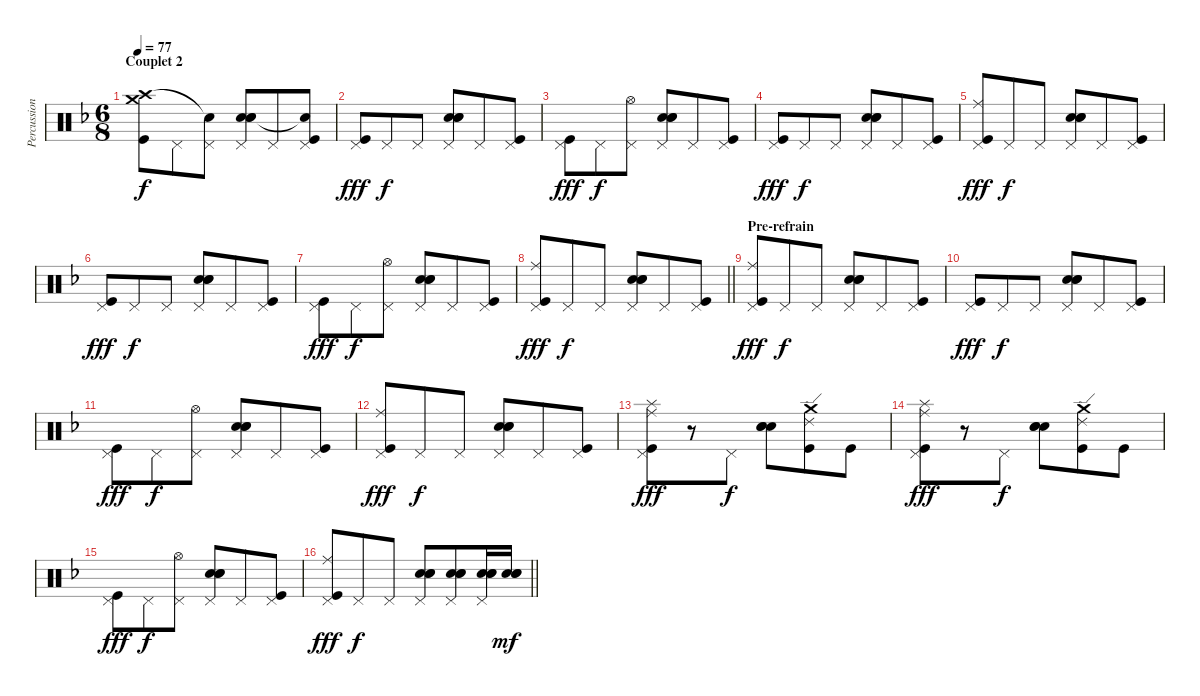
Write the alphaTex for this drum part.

\track ("Percussions" "Percussion") {instrument percussion}
\staff {score}
\articulation defaults
\ts (6 8)
\section ("" "Couplet 2")
\tempo 77
\clef neutral
\ks f
("Crash medium (hit)" "Crash high (hit)" "Kick (hit)").8{dy f} "Pedal Hi-Hat (hit)".8 ("Pedal Hi-Hat (hit)" "Snare (hit)"{t}).8 ("Pedal Hi-Hat (hit)" "Metronome (bell)" "Electric Snare (hit)" "Snare (hit) 2").8 "Pedal Hi-Hat (hit)".8 ("Pedal Hi-Hat (hit)" "Snare (hit)"{t} "Kick (hit)").8 |
("Pedal Hi-Hat (hit)" "Kick (hit)").8{dy fff} "Pedal Hi-Hat (hit)".8{dy f} "Pedal Hi-Hat (hit)".8 ("Pedal Hi-Hat (hit)" "Metronome (bell)" "Electric Snare (hit)" "Snare (hit) 2").8 "Pedal Hi-Hat (hit)".8 ("Pedal Hi-Hat (hit)" "Kick (hit)").8 |
("Pedal Hi-Hat (hit)" "Kick (hit)").8{dy fff} "Pedal Hi-Hat (hit)".8{dy f} ("Pedal Hi-Hat (hit)" "Hi-Hat (open)").8 ("Pedal Hi-Hat (hit)" "Metronome (bell)" "Electric Snare (hit)" "Snare (hit) 2").8 "Pedal Hi-Hat (hit)".8 ("Pedal Hi-Hat (hit)" "Kick (hit)").8 |
("Pedal Hi-Hat (hit)" "Kick (hit)").8{dy fff} "Pedal Hi-Hat (hit)".8{dy f} "Pedal Hi-Hat (hit)".8 ("Pedal Hi-Hat (hit)" "Metronome (bell)" "Electric Snare (hit)" "Snare (hit) 2").8 "Pedal Hi-Hat (hit)".8 ("Pedal Hi-Hat (hit)" "Kick (hit)").8 |
("Pedal Hi-Hat (hit)" "Ride (middle)" "Kick (hit)").8{dy fff} "Pedal Hi-Hat (hit)".8{dy f} "Pedal Hi-Hat (hit)".8 ("Pedal Hi-Hat (hit)" "Metronome (bell)" "Electric Snare (hit)" "Snare (hit) 2").8 "Pedal Hi-Hat (hit)".8 ("Pedal Hi-Hat (hit)" "Kick (hit)").8 |
("Pedal Hi-Hat (hit)" "Kick (hit)").8{dy fff} "Pedal Hi-Hat (hit)".8{dy f} "Pedal Hi-Hat (hit)".8 ("Pedal Hi-Hat (hit)" "Metronome (bell)" "Electric Snare (hit)" "Snare (hit) 2").8 "Pedal Hi-Hat (hit)".8 ("Pedal Hi-Hat (hit)" "Kick (hit)").8 |
("Pedal Hi-Hat (hit)" "Kick (hit)").8{dy fff} "Pedal Hi-Hat (hit)".8{dy f} ("Pedal Hi-Hat (hit)" "Hi-Hat (open)").8 ("Pedal Hi-Hat (hit)" "Metronome (bell)" "Electric Snare (hit)" "Snare (hit) 2").8 "Pedal Hi-Hat (hit)".8 ("Pedal Hi-Hat (hit)" "Kick (hit)").8 |
\barLineRight lightlight
("Pedal Hi-Hat (hit)" "Ride (middle)" "Kick (hit)").8{dy fff} "Pedal Hi-Hat (hit)".8{dy f} "Pedal Hi-Hat (hit)".8 ("Pedal Hi-Hat (hit)" "Metronome (bell)" "Electric Snare (hit)" "Snare (hit) 2").8 "Pedal Hi-Hat (hit)".8 ("Pedal Hi-Hat (hit)" "Kick (hit)").8 |
\section ("" "Pre-refrain")
("Pedal Hi-Hat (hit)" "Ride (middle)" "Kick (hit)").8{dy fff} "Pedal Hi-Hat (hit)".8{dy f} "Pedal Hi-Hat (hit)".8 ("Pedal Hi-Hat (hit)" "Metronome (bell)" "Electric Snare (hit)" "Snare (hit) 2").8 "Pedal Hi-Hat (hit)".8 ("Pedal Hi-Hat (hit)" "Kick (hit)").8 |
("Pedal Hi-Hat (hit)" "Kick (hit)").8{dy fff} "Pedal Hi-Hat (hit)".8{dy f} "Pedal Hi-Hat (hit)".8 ("Pedal Hi-Hat (hit)" "Metronome (bell)" "Electric Snare (hit)" "Snare (hit) 2").8 "Pedal Hi-Hat (hit)".8 ("Pedal Hi-Hat (hit)" "Kick (hit)").8 |
("Pedal Hi-Hat (hit)" "Kick (hit)").8{dy fff} "Pedal Hi-Hat (hit)".8{dy f} ("Pedal Hi-Hat (hit)" "Hi-Hat (open)").8 ("Pedal Hi-Hat (hit)" "Metronome (bell)" "Electric Snare (hit)" "Snare (hit) 2").8 "Pedal Hi-Hat (hit)".8 ("Pedal Hi-Hat (hit)" "Kick (hit)").8 |
("Pedal Hi-Hat (hit)" "Ride (middle)" "Kick (hit)").8{dy fff} "Pedal Hi-Hat (hit)".8{dy f} "Pedal Hi-Hat (hit)".8 ("Pedal Hi-Hat (hit)" "Metronome (bell)" "Electric Snare (hit)" "Snare (hit) 2").8 "Pedal Hi-Hat (hit)".8 ("Pedal Hi-Hat (hit)" "Kick (hit)").8 |
("Pedal Hi-Hat (hit)" "Ride (middle)" "Splash (hit)" "Kick (hit)").8{dy fff} r.8 "Pedal Hi-Hat (hit)".8{dy f} ("Metronome (bell)" "Electric Snare (hit)" "Snare (hit) 2").8 ("Crash medium (hit)" "Ride (edge) 2" "Kick (hit)").8 "Kick (hit)".8 |
("Pedal Hi-Hat (hit)" "Ride (middle)" "Splash (hit)" "Kick (hit)").8{dy fff} r.8 "Pedal Hi-Hat (hit)".8{dy f} ("Metronome (bell)" "Electric Snare (hit)" "Snare (hit) 2").8 ("Crash medium (hit)" "Ride (edge) 2" "Kick (hit)").8 "Kick (hit)".8 |
("Pedal Hi-Hat (hit)" "Kick (hit)").8{dy fff} "Pedal Hi-Hat (hit)".8{dy f} ("Pedal Hi-Hat (hit)" "Hi-Hat (open)").8 ("Pedal Hi-Hat (hit)" "Metronome (bell)" "Electric Snare (hit)" "Snare (hit) 2").8 "Pedal Hi-Hat (hit)".8 ("Pedal Hi-Hat (hit)" "Kick (hit)").8 |
\barLineRight lightlight
("Pedal Hi-Hat (hit)" "Ride (middle)" "Kick (hit)").8{dy fff} "Pedal Hi-Hat (hit)".8{dy f} "Pedal Hi-Hat (hit)".8 ("Pedal Hi-Hat (hit)" "Metronome (bell)" "Electric Snare (hit)" "Snare (hit) 2").8 ("Pedal Hi-Hat (hit)" "Metronome (bell)" "Electric Snare (hit)" "Snare (hit) 2").8 ("Pedal Hi-Hat (hit)" "Metronome (bell)" "Electric Snare (hit)" "Snare (hit) 2").16 ("Metronome (bell)" "Electric Snare (hit)" "Snare (hit) 2").16{dy mf}
